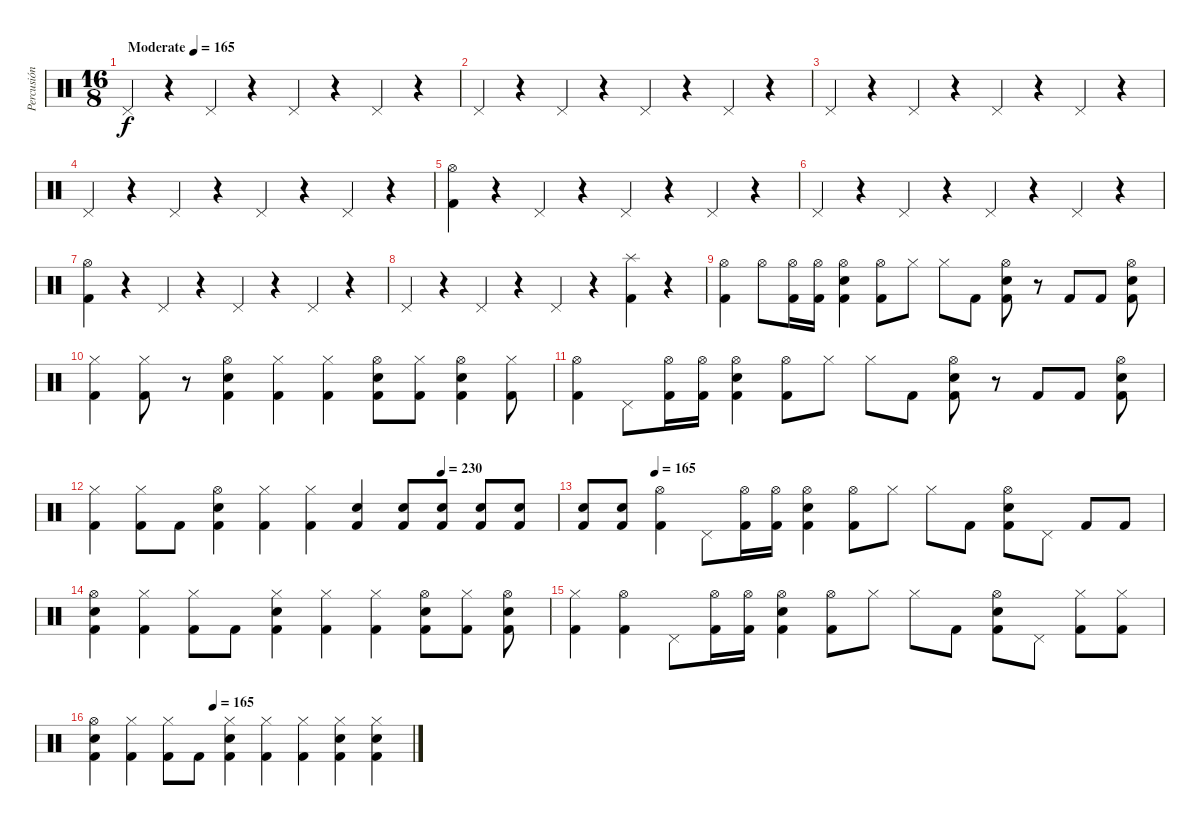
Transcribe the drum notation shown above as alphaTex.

\track ("Percusión" "Percusión") {instrument percussion}
\staff {score}
\articulation defaults
\ts (16 8)
\tempo (165 "Moderate")
\clef neutral
\ks c "Pedal Hi-Hat (hit)".4{dy f}
r.4 "Pedal Hi-Hat (hit)".4 r.4 "Pedal Hi-Hat (hit)".4 r.4 "Pedal Hi-Hat (hit)".4 r.4 |
"Pedal Hi-Hat (hit)".4 r.4 "Pedal Hi-Hat (hit)".4 r.4 "Pedal Hi-Hat (hit)".4 r.4 "Pedal Hi-Hat (hit)".4 r.4 |
"Pedal Hi-Hat (hit)".4 r.4 "Pedal Hi-Hat (hit)".4 r.4 "Pedal Hi-Hat (hit)".4 r.4 "Pedal Hi-Hat (hit)".4 r.4 |
"Pedal Hi-Hat (hit)".4 r.4 "Pedal Hi-Hat (hit)".4 r.4 "Pedal Hi-Hat (hit)".4 r.4 "Pedal Hi-Hat (hit)".4 r.4 |
("Hi-Hat (open)" "Kick (hit) 2").4 r.4 "Pedal Hi-Hat (hit)".4 r.4 "Pedal Hi-Hat (hit)".4 r.4 "Pedal Hi-Hat (hit)".4 r.4 |
"Pedal Hi-Hat (hit)".4 r.4 "Pedal Hi-Hat (hit)".4 r.4 "Pedal Hi-Hat (hit)".4 r.4 "Pedal Hi-Hat (hit)".4 r.4 |
("Hi-Hat (open)" "Kick (hit) 2").4 r.4 "Pedal Hi-Hat (hit)".4 r.4 "Pedal Hi-Hat (hit)".4 r.4 "Pedal Hi-Hat (hit)".4 r.4 |
"Pedal Hi-Hat (hit)".4 r.4 "Pedal Hi-Hat (hit)".4 r.4 "Pedal Hi-Hat (hit)".4 r.4 ("Splash (hit)" "Kick (hit) 2").4 r.4 |
("Hi-Hat (open)" "Kick (hit) 2").4 "Hi-Hat (open)".8 ("Hi-Hat (open)" "Kick (hit) 2").16 ("Hi-Hat (open)" "Kick (hit) 2").16 ("Electric Snare (hit)" "Hi-Hat (open)" "Kick (hit) 2").4 ("Hi-Hat (open)" "Kick (hit) 2").8 "Hi-Hat (closed)".8 "Hi-Hat (closed)".8 "Kick (hit) 2".8 ("Electric Snare (hit)" "Hi-Hat (open)" "Kick (hit) 2").8 r.8 "Kick (hit) 2".8 "Kick (hit) 2".8 ("Electric Snare (hit)" "Hi-Hat (open)" "Kick (hit) 2").8 |
("Hi-Hat (closed)" "Kick (hit) 2").4 ("Hi-Hat (closed)" "Kick (hit) 2").8 r.8 ("Hi-Hat (open)" "Electric Snare (hit)" "Kick (hit) 2").4 ("Hi-Hat (closed)" "Kick (hit) 2").4 ("Hi-Hat (closed)" "Kick (hit) 2").4 ("Hi-Hat (open)" "Electric Snare (hit)" "Kick (hit) 2").8 ("Hi-Hat (closed)" "Kick (hit) 2").8 ("Hi-Hat (open)" "Electric Snare (hit)" "Kick (hit) 2").4 ("Hi-Hat (closed)" "Kick (hit) 2").8 |
("Hi-Hat (open)" "Kick (hit) 2").4 "Pedal Hi-Hat (hit)".8 ("Hi-Hat (open)" "Kick (hit) 2").16 ("Hi-Hat (open)" "Kick (hit) 2").16 ("Electric Snare (hit)" "Hi-Hat (open)" "Kick (hit) 2").4 ("Hi-Hat (open)" "Kick (hit) 2").8 "Hi-Hat (closed)".8 "Hi-Hat (closed)".8 "Kick (hit) 2".8 ("Electric Snare (hit)" "Hi-Hat (open)" "Kick (hit) 2").8 r.8 "Kick (hit) 2".8 "Kick (hit) 2".8 ("Electric Snare (hit)" "Hi-Hat (open)" "Kick (hit) 2").8 |
\tempo (230 0.75)
("Hi-Hat (closed)" "Kick (hit) 2").4 ("Hi-Hat (closed)" "Kick (hit) 2").8 "Kick (hit) 2".8 ("Hi-Hat (open)" "Electric Snare (hit)" "Kick (hit) 2").4 ("Hi-Hat (closed)" "Kick (hit) 2").4 ("Hi-Hat (closed)" "Kick (hit) 2").4 ("Electric Snare (hit)" "Kick (hit) 2").4 ("Electric Snare (hit)" "Kick (hit) 2").8 ("Electric Snare (hit)" "Kick (hit) 2").8 ("Electric Snare (hit)" "Kick (hit) 2").8 ("Electric Snare (hit)" "Kick (hit) 2").8 |
\tempo (165 0.125)
("Electric Snare (hit)" "Kick (hit) 2").8 ("Electric Snare (hit)" "Kick (hit) 2").8 ("Kick (hit) 2" "Hi-Hat (open)").4 "Pedal Hi-Hat (hit)".8 ("Hi-Hat (open)" "Kick (hit) 2").16 ("Hi-Hat (open)" "Kick (hit) 2").16 ("Electric Snare (hit)" "Hi-Hat (open)" "Kick (hit) 2").4 ("Hi-Hat (open)" "Kick (hit) 2").8 "Hi-Hat (closed)".8 "Hi-Hat (closed)".8 "Kick (hit) 2".8 ("Electric Snare (hit)" "Hi-Hat (open)" "Kick (hit) 2").8 "Pedal Hi-Hat (hit)".8 "Kick (hit) 2".8 "Kick (hit) 2".8 |
("Electric Snare (hit)" "Hi-Hat (open)" "Kick (hit) 2").4 ("Hi-Hat (closed)" "Kick (hit) 2").4 ("Hi-Hat (closed)" "Kick (hit) 2").8 "Kick (hit) 2".8 ("Hi-Hat (closed)" "Electric Snare (hit)" "Kick (hit) 2").4 ("Hi-Hat (closed)" "Kick (hit) 2").4 ("Hi-Hat (closed)" "Kick (hit) 2").4 ("Hi-Hat (open)" "Electric Snare (hit)" "Kick (hit) 2").8 ("Hi-Hat (closed)" "Kick (hit) 2").8 ("Hi-Hat (open)" "Electric Snare (hit)" "Kick (hit) 2").8 |
("Hi-Hat (closed)" "Kick (hit) 2").4 ("Kick (hit) 2" "Hi-Hat (open)").4 "Pedal Hi-Hat (hit)".8 ("Hi-Hat (open)" "Kick (hit) 2").16 ("Hi-Hat (open)" "Kick (hit) 2").16 ("Electric Snare (hit)" "Hi-Hat (open)" "Kick (hit) 2").4 ("Hi-Hat (open)" "Kick (hit) 2").8 "Hi-Hat (closed)".8 "Hi-Hat (closed)".8 "Kick (hit) 2".8 ("Electric Snare (hit)" "Hi-Hat (open)" "Kick (hit) 2").8 "Pedal Hi-Hat (hit)".8 ("Hi-Hat (closed)" "Kick (hit) 2").8 ("Hi-Hat (closed)" "Kick (hit) 2").8 |
\tempo (165 0.375)
("Electric Snare (hit)" "Hi-Hat (open)" "Kick (hit) 2").4 ("Hi-Hat (closed)" "Kick (hit) 2").4 ("Hi-Hat (closed)" "Kick (hit) 2").8 "Kick (hit) 2".8 ("Hi-Hat (closed)" "Electric Snare (hit)" "Kick (hit) 2").4 ("Hi-Hat (closed)" "Kick (hit) 2").4 ("Hi-Hat (closed)" "Kick (hit) 2").4 ("Electric Snare (hit)" "Hi-Hat (closed)" "Kick (hit) 2").4 ("Electric Snare (hit)" "Hi-Hat (closed)" "Kick (hit) 2").4
